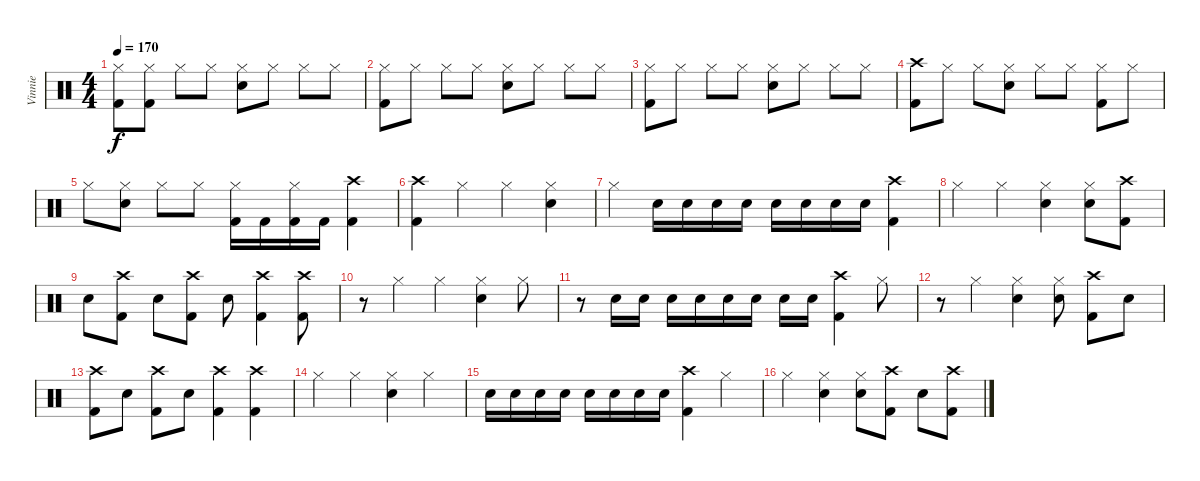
\track ("Vinnie" "Vinnie") {instrument percussion}
\staff {score}
\articulation defaults
\ts (4 4)
\tempo 170
\clef neutral
\ks c
("Hi-Hat (closed)" "Kick (hit) 2").8{dy f} ("Hi-Hat (closed)" "Kick (hit) 2").8 "Hi-Hat (closed)".8 "Hi-Hat (closed)".8 ("Hi-Hat (closed)" "Electric Snare (hit)").8 "Hi-Hat (closed)".8 "Hi-Hat (closed)".8 "Hi-Hat (closed)".8 |
("Hi-Hat (closed)" "Kick (hit) 2").8 "Hi-Hat (closed)".8 "Hi-Hat (closed)".8 "Hi-Hat (closed)".8 ("Hi-Hat (closed)" "Electric Snare (hit)").8 "Hi-Hat (closed)".8 "Hi-Hat (closed)".8 "Hi-Hat (closed)".8 |
("Hi-Hat (closed)" "Kick (hit) 2").8 "Hi-Hat (closed)".8 "Hi-Hat (closed)".8 "Hi-Hat (closed)".8 ("Hi-Hat (closed)" "Electric Snare (hit)").8 "Hi-Hat (closed)".8 "Hi-Hat (closed)".8 "Hi-Hat (closed)".8 |
("Crash high (hit)" "Kick (hit) 2").8 "Hi-Hat (closed)".8 "Hi-Hat (closed)".8 ("Hi-Hat (closed)" "Electric Snare (hit)").8 "Hi-Hat (closed)".8 "Hi-Hat (closed)".8 ("Hi-Hat (closed)" "Kick (hit) 2").8 "Hi-Hat (closed)".8 |
"Hi-Hat (closed)".8 ("Hi-Hat (closed)" "Electric Snare (hit)").8 "Hi-Hat (closed)".8 "Hi-Hat (closed)".8 ("Hi-Hat (closed)" "Kick (hit) 2").16 "Kick (hit) 2".16 ("Hi-Hat (closed)" "Kick (hit) 2").16 "Kick (hit) 2".16 ("Crash high (hit)" "Kick (hit) 2").4 |
("Crash high (hit)" "Kick (hit) 2").4 "Hi-Hat (closed)".4 "Hi-Hat (closed)".4 ("Hi-Hat (closed)" "Electric Snare (hit)").4 |
"Hi-Hat (closed)".4 "Electric Snare (hit)".16 "Electric Snare (hit)".16 "Electric Snare (hit)".16 "Electric Snare (hit)".16 "Electric Snare (hit)".16 "Electric Snare (hit)".16 "Electric Snare (hit)".16 "Electric Snare (hit)".16 ("Crash high (hit)" "Kick (hit) 2").4 |
"Hi-Hat (closed)".4 "Hi-Hat (closed)".4 ("Hi-Hat (closed)" "Electric Snare (hit)").4 ("Hi-Hat (closed)" "Electric Snare (hit)").8 ("Crash high (hit)" "Kick (hit) 2").8 |
"Electric Snare (hit)".8 ("Crash high (hit)" "Kick (hit) 2").8 "Electric Snare (hit)".8 ("Crash high (hit)" "Kick (hit) 2").8 "Electric Snare (hit)".8 ("Crash high (hit)" "Kick (hit) 2").4 ("Crash high (hit)" "Kick (hit) 2").8 |
r.8 "Hi-Hat (closed)".4 "Hi-Hat (closed)".4 ("Hi-Hat (closed)" "Electric Snare (hit)").4 "Hi-Hat (closed)".8 |
r.8 "Electric Snare (hit)".16 "Electric Snare (hit)".16 "Electric Snare (hit)".16 "Electric Snare (hit)".16 "Electric Snare (hit)".16 "Electric Snare (hit)".16 "Electric Snare (hit)".16 "Electric Snare (hit)".16 ("Crash high (hit)" "Kick (hit) 2").4 "Hi-Hat (closed)".8 |
r.8 "Hi-Hat (closed)".4 ("Hi-Hat (closed)" "Electric Snare (hit)").4 ("Hi-Hat (closed)" "Electric Snare (hit)").8 ("Crash high (hit)" "Kick (hit) 2").8 "Electric Snare (hit)".8 |
("Crash high (hit)" "Kick (hit) 2").8 "Electric Snare (hit)".8 ("Crash high (hit)" "Kick (hit) 2").8 "Electric Snare (hit)".8 ("Crash high (hit)" "Kick (hit) 2").4 ("Crash high (hit)" "Kick (hit) 2").4 |
"Hi-Hat (closed)".4 "Hi-Hat (closed)".4 ("Hi-Hat (closed)" "Electric Snare (hit)").4 "Hi-Hat (closed)".4 |
"Electric Snare (hit)".16 "Electric Snare (hit)".16 "Electric Snare (hit)".16 "Electric Snare (hit)".16 "Electric Snare (hit)".16 "Electric Snare (hit)".16 "Electric Snare (hit)".16 "Electric Snare (hit)".16 ("Crash high (hit)" "Kick (hit) 2").4 "Hi-Hat (closed)".4 |
"Hi-Hat (closed)".4 ("Hi-Hat (closed)" "Electric Snare (hit)").4 ("Hi-Hat (closed)" "Electric Snare (hit)").8 ("Crash high (hit)" "Kick (hit) 2").8 "Electric Snare (hit)".8 ("Crash high (hit)" "Kick (hit) 2").8
